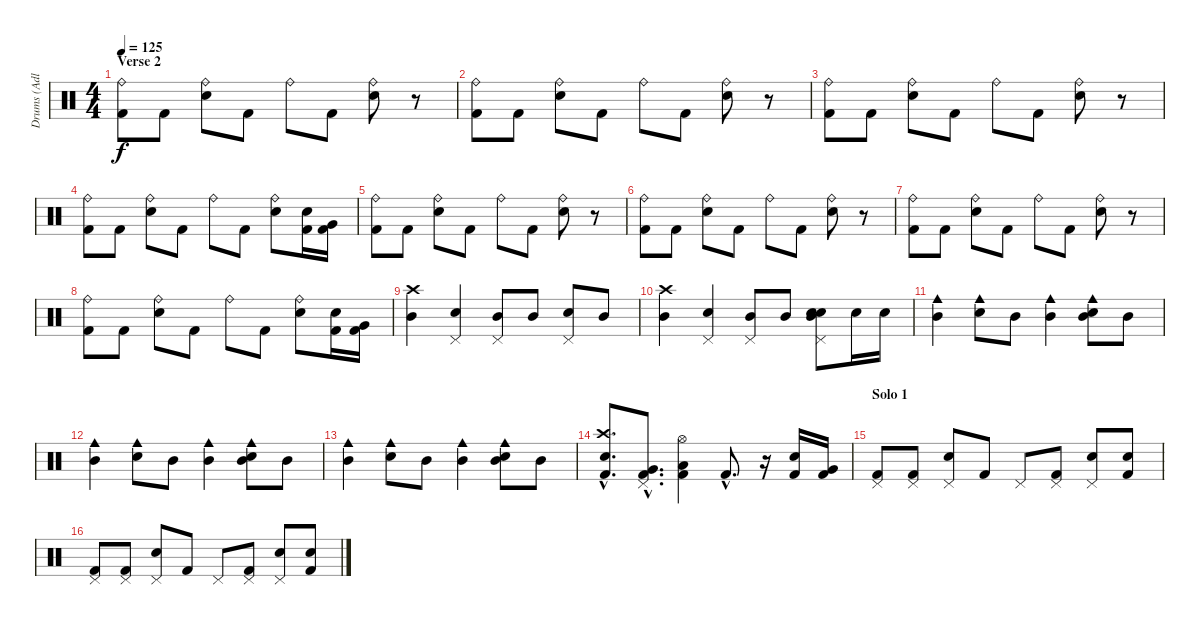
\track ("Drums (Adler)" "Drums (Adl") {instrument percussion}
\staff {score}
\articulation defaults
\ts (4 4)
\section ("" "Verse 2")
\tempo 125
\clef neutral
\ks c
("Kick (hit) 2" "Ride (bell)").8{dy f} "Kick (hit) 2".8 ("Electric Snare (hit)" "Ride (bell)").8 "Kick (hit) 2".8 "Ride (bell)".8 "Kick (hit) 2".8 ("Electric Snare (hit)" "Ride (bell)").8 r.8 |
("Kick (hit) 2" "Ride (bell)").8 "Kick (hit) 2".8 ("Electric Snare (hit)" "Ride (bell)").8 "Kick (hit) 2".8 "Ride (bell)".8 "Kick (hit) 2".8 ("Electric Snare (hit)" "Ride (bell)").8 r.8 |
("Kick (hit) 2" "Ride (bell)").8 "Kick (hit) 2".8 ("Electric Snare (hit)" "Ride (bell)").8 "Kick (hit) 2".8 "Ride (bell)".8 "Kick (hit) 2".8 ("Electric Snare (hit)" "Ride (bell)").8 r.8 |
("Kick (hit) 2" "Ride (bell)").8 "Kick (hit) 2".8 ("Electric Snare (hit)" "Ride (bell)").8 "Kick (hit) 2".8 "Ride (bell)".8 "Kick (hit) 2".8 ("Electric Snare (hit)" "Ride (bell)").8 ("Kick (hit) 2" "Electric Snare (hit)").16 ("Kick (hit) 2" "Very Low Tom (hit)").16 |
("Kick (hit) 2" "Ride (bell)").8 "Kick (hit) 2".8 ("Electric Snare (hit)" "Ride (bell)").8 "Kick (hit) 2".8 "Ride (bell)".8 "Kick (hit) 2".8 ("Electric Snare (hit)" "Ride (bell)").8 r.8 |
("Kick (hit) 2" "Ride (bell)").8 "Kick (hit) 2".8 ("Electric Snare (hit)" "Ride (bell)").8 "Kick (hit) 2".8 "Ride (bell)".8 "Kick (hit) 2".8 ("Electric Snare (hit)" "Ride (bell)").8 r.8 |
("Kick (hit) 2" "Ride (bell)").8 "Kick (hit) 2".8 ("Electric Snare (hit)" "Ride (bell)").8 "Kick (hit) 2".8 "Ride (bell)".8 "Kick (hit) 2".8 ("Electric Snare (hit)" "Ride (bell)").8 r.8 |
("Kick (hit) 2" "Ride (bell)").8 "Kick (hit) 2".8 ("Electric Snare (hit)" "Ride (bell)").8 "Kick (hit) 2".8 "Ride (bell)".8 "Kick (hit) 2".8 ("Electric Snare (hit)" "Ride (bell)").8 ("Kick (hit) 2" "Electric Snare (hit)").16 ("Kick (hit) 2" "Very Low Tom (hit)").16 |
("Crash high (hit)" "Mid Tom (hit)").4 ("Pedal Hi-Hat (hit)" "Snare (hit) 2").4 ("Pedal Hi-Hat (hit)" "Mid Tom (hit)").8 "Mid Tom (hit)".8 ("Pedal Hi-Hat (hit)" "Snare (hit) 2").8 "Mid Tom (hit)".8 |
("Crash high (hit)" "Mid Tom (hit)").4 ("Pedal Hi-Hat (hit)" "Snare (hit) 2").4 ("Pedal Hi-Hat (hit)" "Mid Tom (hit)").8 "Mid Tom (hit)".8 ("Pedal Hi-Hat (hit)" "Snare (hit) 2" "Electric Snare (hit)" "Mid Tom (hit)").8 "Electric Snare (hit)".16 "Electric Snare (hit)".16 |
("Mid Tom (hit)" "Cowbell medium (hit)").4 ("Electric Snare (hit)" "Cowbell medium (hit)").8 "Mid Tom (hit)".8 ("Mid Tom (hit)" "Cowbell medium (hit)").4 ("Electric Snare (hit)" "Mid Tom (hit)" "Cowbell medium (hit)").8 "Mid Tom (hit)".8 |
("Mid Tom (hit)" "Cowbell medium (hit)").4 ("Electric Snare (hit)" "Cowbell medium (hit)").8 "Mid Tom (hit)".8 ("Mid Tom (hit)" "Cowbell medium (hit)").4 ("Electric Snare (hit)" "Mid Tom (hit)" "Cowbell medium (hit)").8 "Mid Tom (hit)".8 |
("Mid Tom (hit)" "Cowbell medium (hit)").4 ("Electric Snare (hit)" "Cowbell medium (hit)").8 "Mid Tom (hit)".8 ("Mid Tom (hit)" "Cowbell medium (hit)").4 ("Electric Snare (hit)" "Mid Tom (hit)" "Cowbell medium (hit)").8 "Mid Tom (hit)".8 |
("Kick (hit) 2"{hac} "Snare (hit) 2"{hac} "Crash high (hit)"{hac}).8{d} ("Kick (hit) 2"{hac} "Very Low Tom (hit)"{hac} "Pedal Hi-Hat (hit)"{hac}).8{d} ("Kick (hit) 2" "Low Tom (hit)" "Hi-Hat (open)").4 "Kick (hit) 2"{hac}.8{d} r.16 ("Kick (hit) 2" "Electric Snare (hit)").16 ("Kick (hit) 2" "Very Low Tom (hit)").16 |
\section ("" "Solo 1")
("Kick (hit) 2" "Pedal Hi-Hat (hit)").8 ("Kick (hit) 2" "Pedal Hi-Hat (hit)").8 ("Electric Snare (hit)" "Pedal Hi-Hat (hit)").8 "Kick (hit) 2".8 "Pedal Hi-Hat (hit)".8 ("Kick (hit) 2" "Pedal Hi-Hat (hit)").8 ("Electric Snare (hit)" "Pedal Hi-Hat (hit)").8 ("Kick (hit) 2" "Snare (hit) 2").8 |
("Kick (hit) 2" "Pedal Hi-Hat (hit)").8 ("Kick (hit) 2" "Pedal Hi-Hat (hit)").8 ("Electric Snare (hit)" "Pedal Hi-Hat (hit)").8 "Kick (hit) 2".8 "Pedal Hi-Hat (hit)".8 ("Kick (hit) 2" "Pedal Hi-Hat (hit)").8 ("Electric Snare (hit)" "Pedal Hi-Hat (hit)").8 ("Kick (hit) 2" "Snare (hit) 2").8
